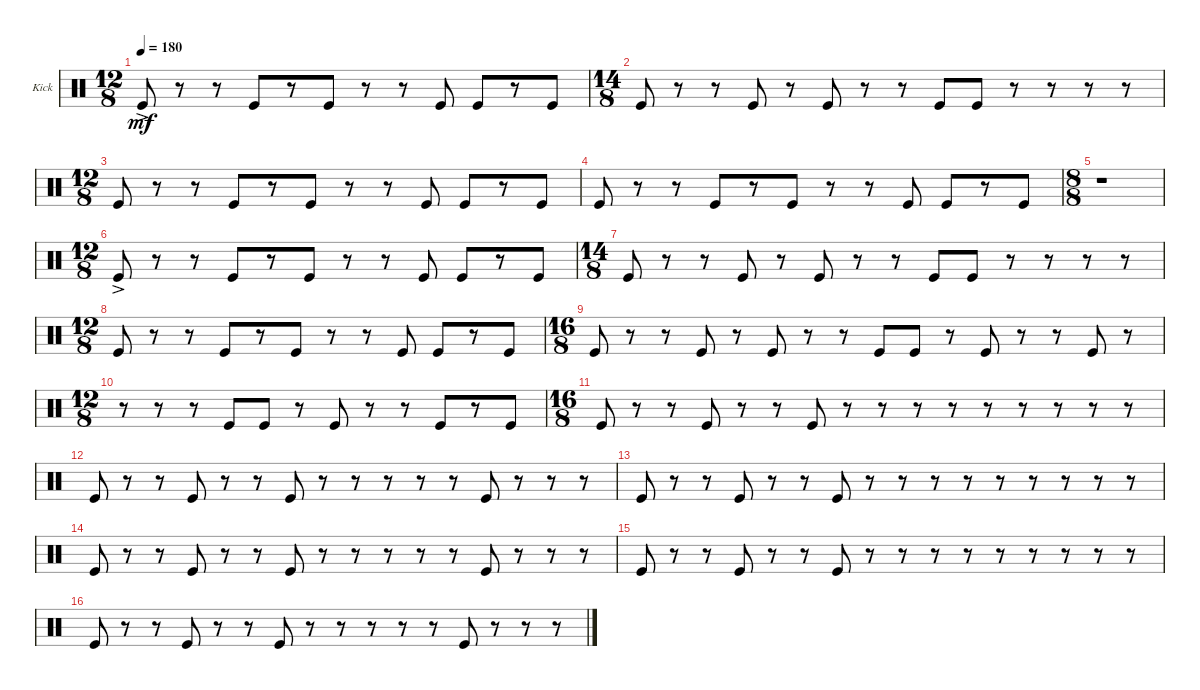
\defaultSystemsLayout 4
\bracketExtendMode groupsimilarinstruments
\firstSystemTrackNameOrientation horizontal
\otherSystemsTrackNameOrientation horizontal
\track ("Kick" "Kick") {instrument percussion}
\staff {score}
\articulation defaults
\ts (12 8)
\tempo 180
\clef neutral
\ks c "Kick (hit)"{ac}.8{dy mf}
r.8 r.8 "Kick (hit)".8 r.8 "Kick (hit)".8 r.8 r.8 "Kick (hit)".8 "Kick (hit)".8 r.8 "Kick (hit)".8 |
\ts (14 8)
"Kick (hit)".8 r.8 r.8 "Kick (hit)".8 r.8 "Kick (hit)".8 r.8 r.8 "Kick (hit)".8 "Kick (hit)".8 r.8 r.8 r.8 r.8 |
\ts (12 8)
"Kick (hit)".8 r.8 r.8 "Kick (hit)".8 r.8 "Kick (hit)".8 r.8 r.8 "Kick (hit)".8 "Kick (hit)".8 r.8 "Kick (hit)".8 |
"Kick (hit)".8 r.8 r.8 "Kick (hit)".8 r.8 "Kick (hit)".8 r.8 r.8 "Kick (hit)".8 "Kick (hit)".8 r.8 "Kick (hit)".8 |
\ts (8 8)
r.1 |
\ts (12 8)
"Kick (hit)"{ac}.8 r.8 r.8 "Kick (hit)".8 r.8 "Kick (hit)".8 r.8 r.8 "Kick (hit)".8 "Kick (hit)".8 r.8 "Kick (hit)".8 |
\ts (14 8)
"Kick (hit)".8 r.8 r.8 "Kick (hit)".8 r.8 "Kick (hit)".8 r.8 r.8 "Kick (hit)".8 "Kick (hit)".8 r.8 r.8 r.8 r.8 |
\ts (12 8)
"Kick (hit)".8 r.8 r.8 "Kick (hit)".8 r.8 "Kick (hit)".8 r.8 r.8 "Kick (hit)".8 "Kick (hit)".8 r.8 "Kick (hit)".8 |
\ts (16 8)
"Kick (hit)".8 r.8 r.8 "Kick (hit)".8 r.8 "Kick (hit)".8 r.8 r.8 "Kick (hit)".8 "Kick (hit)".8 r.8 "Kick (hit)".8 r.8 r.8 "Kick (hit)".8 r.8 |
\ts (12 8)
r.8 r.8 r.8 "Kick (hit)".8 "Kick (hit)".8 r.8 "Kick (hit)".8 r.8 r.8 "Kick (hit)".8 r.8 "Kick (hit)".8 |
\ts (16 8)
"Kick (hit)".8 r.8 r.8 "Kick (hit)".8 r.8 r.8 "Kick (hit)".8 r.8 r.8 r.8 r.8 r.8 r.8 r.8 r.8 r.8 |
"Kick (hit)".8 r.8 r.8 "Kick (hit)".8 r.8 r.8 "Kick (hit)".8 r.8 r.8 r.8 r.8 r.8 "Kick (hit)".8 r.8 r.8 r.8 |
"Kick (hit)".8 r.8 r.8 "Kick (hit)".8 r.8 r.8 "Kick (hit)".8 r.8 r.8 r.8 r.8 r.8 r.8 r.8 r.8 r.8 |
"Kick (hit)".8 r.8 r.8 "Kick (hit)".8 r.8 r.8 "Kick (hit)".8 r.8 r.8 r.8 r.8 r.8 "Kick (hit)".8 r.8 r.8 r.8 |
"Kick (hit)".8 r.8 r.8 "Kick (hit)".8 r.8 r.8 "Kick (hit)".8 r.8 r.8 r.8 r.8 r.8 r.8 r.8 r.8 r.8 |
"Kick (hit)".8 r.8 r.8 "Kick (hit)".8 r.8 r.8 "Kick (hit)".8 r.8 r.8 r.8 r.8 r.8 "Kick (hit)".8 r.8 r.8 r.8
